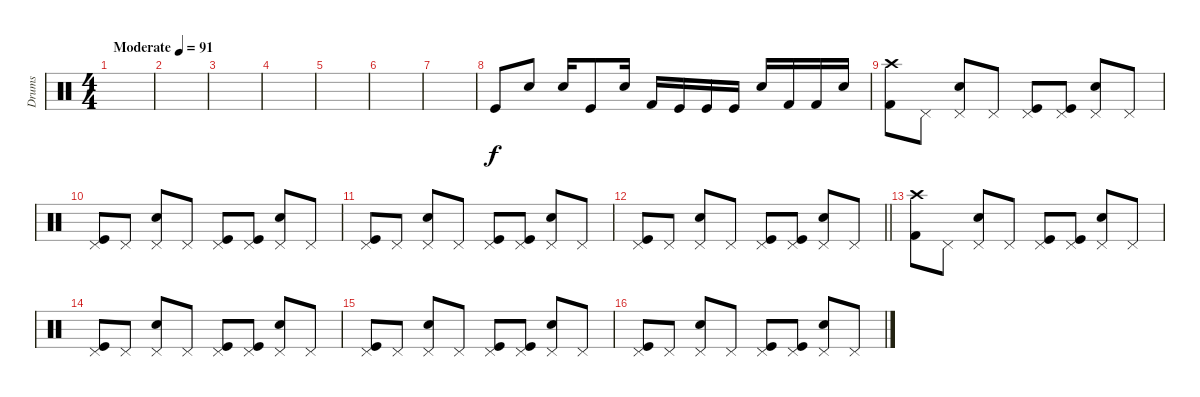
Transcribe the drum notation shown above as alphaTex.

\track ("Drums" "Drums") {instrument percussion}
\staff {score}
\articulation defaults
\ts (4 4)
\tempo (91 "Moderate")
\clef neutral
\ks c
|
|
|
|
|
|
|
"Kick (hit)".8 "Snare (hit) 2".8 "Snare (hit) 2".16 "Kick (hit)".8 "Snare (hit) 2".16 "Kick (hit) 2".16 "Kick (hit)".16 "Kick (hit)".16 "Kick (hit)".16 "Snare (hit) 2".16 "Kick (hit) 2".16 "Kick (hit) 2".16 "Snare (hit) 2".16 |
("Crash high (hit)" "Kick (hit) 2").8 "Pedal Hi-Hat (hit)".8 ("Snare (hit) 2" "Pedal Hi-Hat (hit)").8 "Pedal Hi-Hat (hit)".8 ("Kick (hit)" "Pedal Hi-Hat (hit)").8 ("Kick (hit)" "Pedal Hi-Hat (hit)").8 ("Snare (hit) 2" "Pedal Hi-Hat (hit)").8 "Pedal Hi-Hat (hit)".8 |
("Kick (hit)" "Pedal Hi-Hat (hit)").8 "Pedal Hi-Hat (hit)".8 ("Snare (hit) 2" "Pedal Hi-Hat (hit)").8 "Pedal Hi-Hat (hit)".8 ("Kick (hit)" "Pedal Hi-Hat (hit)").8 ("Kick (hit)" "Pedal Hi-Hat (hit)").8 ("Snare (hit) 2" "Pedal Hi-Hat (hit)").8 "Pedal Hi-Hat (hit)".8 |
("Kick (hit)" "Pedal Hi-Hat (hit)").8 "Pedal Hi-Hat (hit)".8 ("Snare (hit) 2" "Pedal Hi-Hat (hit)").8 "Pedal Hi-Hat (hit)".8 ("Kick (hit)" "Pedal Hi-Hat (hit)").8 ("Kick (hit)" "Pedal Hi-Hat (hit)").8 ("Snare (hit) 2" "Pedal Hi-Hat (hit)").8 "Pedal Hi-Hat (hit)".8 |
\barLineRight lightlight
("Kick (hit)" "Pedal Hi-Hat (hit)").8 "Pedal Hi-Hat (hit)".8 ("Snare (hit) 2" "Pedal Hi-Hat (hit)").8 "Pedal Hi-Hat (hit)".8 ("Kick (hit)" "Pedal Hi-Hat (hit)").8 ("Kick (hit)" "Pedal Hi-Hat (hit)").8 ("Snare (hit) 2" "Pedal Hi-Hat (hit)").8 "Pedal Hi-Hat (hit)".8 |
("Crash high (hit)" "Kick (hit) 2").8 "Pedal Hi-Hat (hit)".8 ("Snare (hit) 2" "Pedal Hi-Hat (hit)").8 "Pedal Hi-Hat (hit)".8 ("Kick (hit)" "Pedal Hi-Hat (hit)").8 ("Kick (hit)" "Pedal Hi-Hat (hit)").8 ("Snare (hit) 2" "Pedal Hi-Hat (hit)").8 "Pedal Hi-Hat (hit)".8 |
("Kick (hit)" "Pedal Hi-Hat (hit)").8 "Pedal Hi-Hat (hit)".8 ("Snare (hit) 2" "Pedal Hi-Hat (hit)").8 "Pedal Hi-Hat (hit)".8 ("Kick (hit)" "Pedal Hi-Hat (hit)").8 ("Kick (hit)" "Pedal Hi-Hat (hit)").8 ("Snare (hit) 2" "Pedal Hi-Hat (hit)").8 "Pedal Hi-Hat (hit)".8 |
("Kick (hit)" "Pedal Hi-Hat (hit)").8 "Pedal Hi-Hat (hit)".8 ("Snare (hit) 2" "Pedal Hi-Hat (hit)").8 "Pedal Hi-Hat (hit)".8 ("Kick (hit)" "Pedal Hi-Hat (hit)").8 ("Kick (hit)" "Pedal Hi-Hat (hit)").8 ("Snare (hit) 2" "Pedal Hi-Hat (hit)").8 "Pedal Hi-Hat (hit)".8 |
("Kick (hit)" "Pedal Hi-Hat (hit)").8 "Pedal Hi-Hat (hit)".8 ("Snare (hit) 2" "Pedal Hi-Hat (hit)").8 "Pedal Hi-Hat (hit)".8 ("Kick (hit)" "Pedal Hi-Hat (hit)").8 ("Kick (hit)" "Pedal Hi-Hat (hit)").8 ("Snare (hit) 2" "Pedal Hi-Hat (hit)").8 "Pedal Hi-Hat (hit)".8
